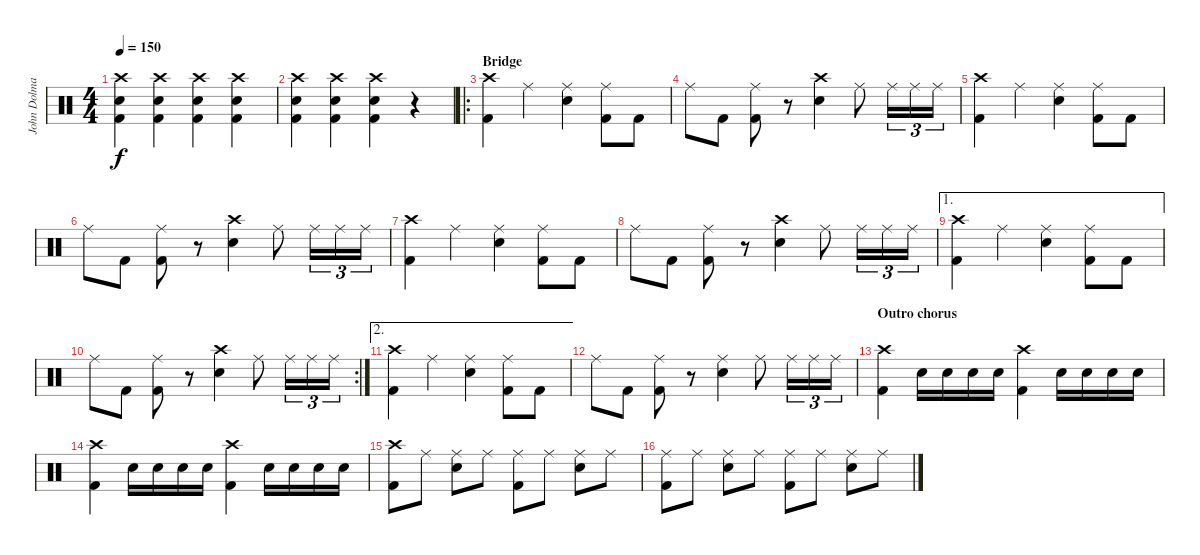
\track ("John Dolmayan" "John Dolma") {instrument percussion}
\staff {score}
\articulation defaults
\ts (4 4)
\tempo 150
\clef neutral
\ks c
("Crash high (hit)" "Electric Snare (hit)" "Kick (hit) 2").4{dy f} ("Crash high (hit)" "Electric Snare (hit)" "Kick (hit) 2").4 ("Crash high (hit)" "Electric Snare (hit)" "Kick (hit) 2").4 ("Crash high (hit)" "Electric Snare (hit)" "Kick (hit) 2").4 |
("Crash high (hit)" "Electric Snare (hit)" "Kick (hit) 2").4 ("Crash high (hit)" "Electric Snare (hit)" "Kick (hit) 2").4 ("Crash high (hit)" "Electric Snare (hit)" "Kick (hit) 2").4 r.4 |
\ro
\section ("" "Bridge")
("Crash high (hit)" "Kick (hit) 2").4 "Ride (middle)".4 ("Ride (middle)" "Electric Snare (hit)").4 ("Ride (middle)" "Kick (hit) 2").8 "Kick (hit) 2".8 |
"Ride (middle)".8 "Kick (hit) 2".8 ("Ride (middle)" "Kick (hit) 2").8 r.8 ("Crash high (hit)" "Electric Snare (hit)").4 "Ride (middle)".8 "Ride (middle)".16{tu (3 2)} "Ride (middle)".16{tu (3 2)} "Ride (middle)".16{tu (3 2)} |
("Crash high (hit)" "Kick (hit) 2").4 "Ride (middle)".4 ("Ride (middle)" "Electric Snare (hit)").4 ("Ride (middle)" "Kick (hit) 2").8 "Kick (hit) 2".8 |
"Ride (middle)".8 "Kick (hit) 2".8 ("Ride (middle)" "Kick (hit) 2").8 r.8 ("Crash high (hit)" "Electric Snare (hit)").4 "Ride (middle)".8 "Ride (middle)".16{tu (3 2)} "Ride (middle)".16{tu (3 2)} "Ride (middle)".16{tu (3 2)} |
("Crash high (hit)" "Kick (hit) 2").4 "Ride (middle)".4 ("Ride (middle)" "Electric Snare (hit)").4 ("Ride (middle)" "Kick (hit) 2").8 "Kick (hit) 2".8 |
"Ride (middle)".8 "Kick (hit) 2".8 ("Ride (middle)" "Kick (hit) 2").8 r.8 ("Crash high (hit)" "Electric Snare (hit)").4 "Ride (middle)".8 "Ride (middle)".16{tu (3 2)} "Ride (middle)".16{tu (3 2)} "Ride (middle)".16{tu (3 2)} |
\ae 1
("Crash high (hit)" "Kick (hit) 2").4 "Ride (middle)".4 ("Ride (middle)" "Electric Snare (hit)").4 ("Ride (middle)" "Kick (hit) 2").8 "Kick (hit) 2".8 |
\rc 2 "Ride (middle)".8 "Kick (hit) 2".8
("Ride (middle)" "Kick (hit) 2").8 r.8 ("Crash high (hit)" "Electric Snare (hit)").4 "Ride (middle)".8 "Ride (middle)".16{tu (3 2)} "Ride (middle)".16{tu (3 2)} "Ride (middle)".16{tu (3 2)} |
\ae 2
("Crash high (hit)" "Kick (hit) 2").4 "Ride (middle)".4 ("Ride (middle)" "Electric Snare (hit)").4 ("Ride (middle)" "Kick (hit) 2").8 "Kick (hit) 2".8 |
"Ride (middle)".8 "Kick (hit) 2".8 ("Ride (middle)" "Kick (hit) 2").8 r.8 ("Ride (middle)" "Electric Snare (hit)").4 "Ride (middle)".8 "Ride (middle)".16{tu (3 2)} "Ride (middle)".16{tu (3 2)} "Ride (middle)".16{tu (3 2)} |
\section ("" "Outro chorus")
("Crash high (hit)" "Kick (hit) 2").4 "Electric Snare (hit)".16 "Electric Snare (hit)".16 "Electric Snare (hit)".16 "Electric Snare (hit)".16 ("Crash high (hit)" "Kick (hit) 2").4 "Electric Snare (hit)".16 "Electric Snare (hit)".16 "Electric Snare (hit)".16 "Electric Snare (hit)".16 |
("Crash high (hit)" "Kick (hit) 2").4 "Electric Snare (hit)".16 "Electric Snare (hit)".16 "Electric Snare (hit)".16 "Electric Snare (hit)".16 ("Crash high (hit)" "Kick (hit) 2").4 "Electric Snare (hit)".16 "Electric Snare (hit)".16 "Electric Snare (hit)".16 "Electric Snare (hit)".16 |
("Crash high (hit)" "Kick (hit) 2").8 "Ride (middle)".8 ("Ride (middle)" "Electric Snare (hit)").8 "Ride (middle)".8 ("Ride (middle)" "Kick (hit) 2").8 "Ride (middle)".8 ("Ride (middle)" "Electric Snare (hit)").8 "Ride (middle)".8 |
("Ride (middle)" "Kick (hit) 2").8 "Ride (middle)".8 ("Ride (middle)" "Electric Snare (hit)").8 "Ride (middle)".8 ("Ride (middle)" "Kick (hit) 2").8 "Ride (middle)".8 ("Ride (middle)" "Electric Snare (hit)").8 "Ride (middle)".8
